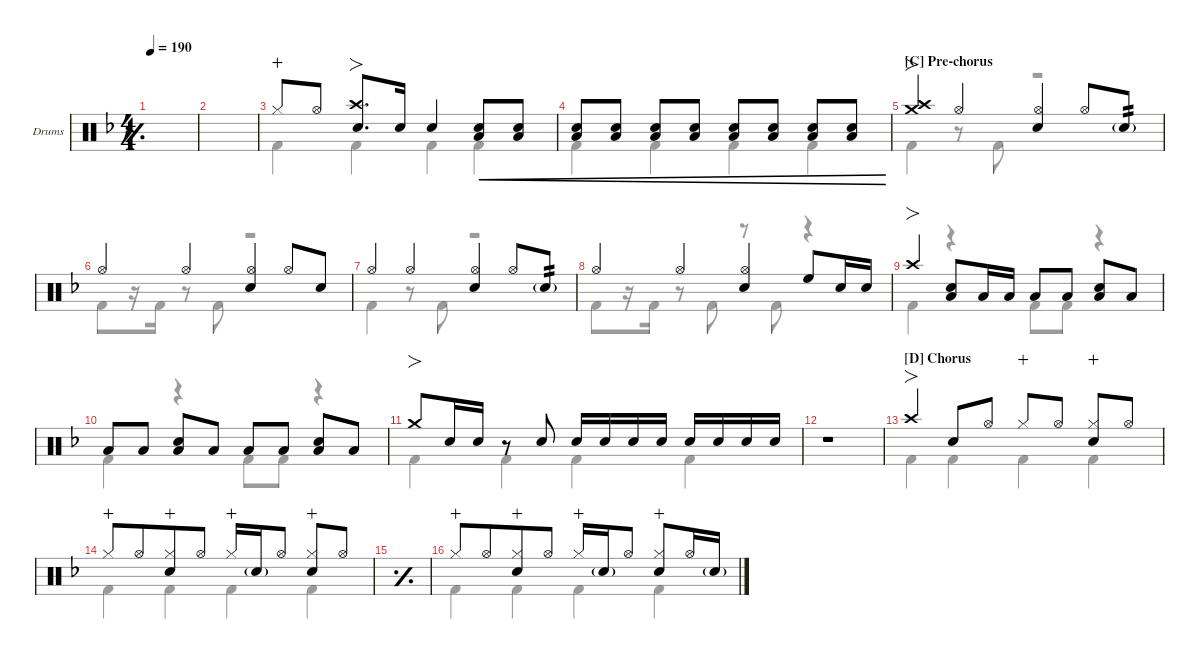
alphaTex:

\defaultSystemsLayout 4
\hideDynamics
\bracketExtendMode nobrackets
\firstSystemTrackNameOrientation horizontal
\track ("Drums" "Drums") {defaultSystemsLayout 4 instrument percussion}
\staff {score}
\articulation defaults
\voice
\ts (4 4)
\tempo 190
\clef neutral
\simile simple
\scale
0.266618
\ks dminor
|
\scale
0.244461 |
\simile none
\scale
0.24446 "Hi-Hat (closed)"{acc forcenatural}.8{dy mp wahc} "Hi-Hat (open)"{acc forcenatural}.8{dy f beam split} ("Snare (hit) 2"{acc forcenatural} "Crash high (hit)"{acc forcenatural}).8{fo d} "Snare (hit) 2"{acc forcenatural}.16 "Snare (hit) 2"{acc forcenatural}.4 ("Snare (hit) 2"{acc forcenatural} "Low Tom (hit)"{acc forcenatural}).8{cre} ("Snare (hit) 2"{acc forcenatural} "Low Tom (hit)"{acc forcenatural}).8{cre} |
\scale
0.244461 ("Snare (hit) 2"{acc forcenatural} "Low Tom (hit)"{acc forcenatural}).8{cre} ("Snare (hit) 2"{acc forcenatural} "Low Tom (hit)"{acc forcenatural}).8{cre} ("Snare (hit) 2"{acc forcenatural} "Low Tom (hit)"{acc forcenatural}).8{cre} ("Snare (hit) 2"{acc forcenatural} "Low Tom (hit)"{acc forcenatural}).8{cre} ("Snare (hit) 2"{acc forcenatural} "Low Tom (hit)"{acc forcenatural}).8{cre} ("Snare (hit) 2"{acc forcenatural} "Low Tom (hit)"{acc forcenatural}).8{cre} ("Snare (hit) 2"{acc forcenatural} "Low Tom (hit)"{acc forcenatural}).8{cre} ("Snare (hit) 2"{acc forcenatural} "Low Tom (hit)"{acc forcenatural}).8{cre} |
\section ("C" "Pre-chorus")
\scale
0.266618 ("Crash high (hit)"{acc forcenatural} "Crash medium (hit)"{acc forcenatural}).4{fo} "Hi-Hat (open)"{acc forcenatural}.4 ("Hi-Hat (open)"{acc forcenatural} "Snare (hit) 2"{acc forcenatural}).4 "Hi-Hat (open)"{acc forcenatural}.8 "Snare (hit) 2"{g acc forcenatural}.8{tp 2 dy mf} |
\scale
0.244461 "Hi-Hat (open)"{acc forcenatural}.4{dy f} "Hi-Hat (open)"{acc forcenatural}.4 ("Hi-Hat (open)"{acc forcenatural} "Snare (hit) 2"{acc forcenatural}).4 "Hi-Hat (open)"{acc forcenatural}.8 "Snare (hit) 2"{acc forcenatural}.8 |
\scale
0.24446 "Hi-Hat (open)"{acc forcenatural}.4 "Hi-Hat (open)"{acc forcenatural}.4 ("Hi-Hat (open)"{acc forcenatural} "Snare (hit) 2"{acc forcenatural}).4 "Hi-Hat (open)"{acc forcenatural}.8 "Snare (hit) 2"{g acc forcenatural}.8{tp 2 dy mf} |
\scale
0.244461 "Hi-Hat (open)"{acc forcenatural}.4{dy f} "Hi-Hat (open)"{acc forcenatural}.4 ("Hi-Hat (open)"{acc forcenatural} "Snare (hit) 2"{acc forcenatural}).4 "High Floor Tom (hit)"{acc forcenatural}.8 "Snare (hit) 2"{acc forcenatural}.16 "Snare (hit) 2"{acc forcenatural}.16{dy mf} |
\scale
0.266618 "Crash high (hit)"{acc forcenatural}.4{fo dy f} ("Snare (hit) 2"{acc forcenatural} "Low Tom (hit)"{acc forcenatural}).8 "Low Tom (hit)"{acc forcenatural}.16 "Low Tom (hit)"{acc forcenatural}.16 "Low Tom (hit)"{acc forcenatural}.8 "Low Tom (hit)"{acc forcenatural}.8 ("Low Tom (hit)"{acc forcenatural} "Snare (hit) 2"{acc forcenatural}).8 "Low Tom (hit)"{acc forcenatural}.8 |
\scale
0.244461 "Low Tom (hit)"{acc forcenatural}.8 "Low Tom (hit)"{acc forcenatural}.8 ("Low Tom (hit)"{acc forcenatural} "Snare (hit) 2"{acc forcenatural}).8 "Low Tom (hit)"{acc forcenatural}.8 "Low Tom (hit)"{acc forcenatural}.8 "Low Tom (hit)"{acc forcenatural}.8 ("Low Tom (hit)"{acc forcenatural} "Snare (hit) 2"{acc forcenatural}).8 "Low Tom (hit)"{acc forcenatural}.8 |
\scale
0.244461 "Crash medium (hit)"{acc forcenatural}.8{fo} "Snare (hit) 2"{acc forcenatural}.16 "Snare (hit) 2"{acc forcenatural}.16{beam split} r.8{beam split} "Snare (hit) 2"{acc forcenatural}.8 "Snare (hit) 2"{acc forcenatural}.16 "Snare (hit) 2"{acc forcenatural}.16{dy mp} "Snare (hit) 2"{acc forcenatural}.16{dy mf} "Snare (hit) 2"{acc forcenatural}.16{dy mp beam split} "Snare (hit) 2"{acc forcenatural}.16{dy f} "Snare (hit) 2"{acc forcenatural}.16{dy mp} "Snare (hit) 2"{acc forcenatural}.16{dy mf} "Snare (hit) 2"{acc forcenatural}.16{dy mp} |
\scale
0.244461 r.1 |
\section ("D" "Chorus")
\scale
0.266618 "Crash high (hit)"{acc forcenatural}.4{fo dy f} "Snare (hit) 2"{acc forcenatural}.8 "Hi-Hat (open)"{acc forcenatural}.8 "Hi-Hat (closed)"{acc forcenatural}.8{dy mp wahc} "Hi-Hat (open)"{acc forcenatural}.8{dy f} ("Hi-Hat (closed)"{acc forcenatural} "Snare (hit) 2"{acc forcenatural}).8{wahc} "Hi-Hat (open)"{acc forcenatural}.8 |
\scale
0.244461 "Hi-Hat (closed)"{acc forcenatural}.8{dy mp wahc beam merge} "Hi-Hat (open)"{acc forcenatural}.8{dy f beam merge} ("Hi-Hat (closed)"{acc forcenatural} "Snare (hit) 2"{acc forcenatural}).8{wahc beam merge} "Hi-Hat (open)"{acc forcenatural}.8 "Hi-Hat (closed)"{acc forcenatural}.16{dy mp wahc} "Snare (hit) 2"{g acc forcenatural}.16{dy mf} "Hi-Hat (open)"{acc forcenatural}.8{dy f beam split} ("Hi-Hat (closed)"{acc forcenatural} "Snare (hit) 2"{acc forcenatural}).8{wahc} "Hi-Hat (open)"{acc forcenatural}.8 |
\simile simple
\scale
0.24446 |
\simile none
\scale
0.244461 "Hi-Hat (closed)"{acc forcenatural}.8{dy mp wahc beam merge} "Hi-Hat (open)"{acc forcenatural}.8{dy f beam merge} ("Hi-Hat (closed)"{acc forcenatural} "Snare (hit) 2"{acc forcenatural}).8{wahc beam merge} "Hi-Hat (open)"{acc forcenatural}.8 "Hi-Hat (closed)"{acc forcenatural}.16{dy mp wahc} "Snare (hit) 2"{g acc forcenatural}.16{dy mf} "Hi-Hat (open)"{acc forcenatural}.8{dy f beam split} ("Hi-Hat (closed)"{acc forcenatural} "Snare (hit) 2"{acc forcenatural}).8{wahc} "Hi-Hat (open)"{acc forcenatural}.16 "Snare (hit) 2"{g acc forcenatural}.16{dy mf}
\voice
\clef neutral
\ottava regular
\simile simple
\scale
0.266618
\ks dminor
|
\scale
0.244461 |
\simile none
\scale
0.24446 "Kick (hit) 2"{acc forcenatural}.4 "Kick (hit) 2"{acc forcenatural}.4 "Kick (hit) 2"{acc forcenatural}.4 "Kick (hit) 2"{acc forcenatural}.4 |
\scale
0.244461 "Kick (hit) 2"{acc forcenatural}.4 "Kick (hit) 2"{acc forcenatural}.4 "Kick (hit) 2"{acc forcenatural}.4 "Kick (hit) 2"{acc forcenatural}.4 |
\scale
0.266618 "Kick (hit) 2"{acc forcenatural}.4 r.8 "Kick (hit) 2"{acc forcenatural}.8 r.2 |
\scale
0.244461 "Kick (hit) 2"{acc forcenatural}.8 r.16 "Kick (hit) 2"{acc forcenatural}.16{beam split} r.8{beam split} "Kick (hit) 2"{acc forcenatural}.8 r.2 |
\scale
0.24446 "Kick (hit) 2"{acc forcenatural}.4 r.8 "Kick (hit) 2"{acc forcenatural}.8 r.2 |
\scale
0.244461 "Kick (hit) 2"{acc forcenatural}.8 r.16 "Kick (hit) 2"{acc forcenatural}.16{beam split} r.8{beam split} "Kick (hit) 2"{acc forcenatural}.8 r.8 "Kick (hit) 2"{acc forcenatural}.8 r.4 |
\scale
0.266618 "Kick (hit) 2"{acc forcenatural}.4 r.4 "Kick (hit) 2"{acc forcenatural}.8 "Kick (hit) 2"{acc forcenatural}.8 r.4 |
\scale
0.244461 "Kick (hit) 2"{acc forcenatural}.4 r.4 "Kick (hit) 2"{acc forcenatural}.8 "Kick (hit) 2"{acc forcenatural}.8 r.4 |
\scale
0.244461 "Kick (hit) 2"{acc forcenatural}.4 "Kick (hit) 2"{acc forcenatural}.4 "Kick (hit) 2"{acc forcenatural}.4 "Kick (hit) 2"{acc forcenatural}.4 |
\scale
0.244461 r.1 |
\scale
0.266618 "Kick (hit) 2"{acc forcenatural}.4 "Kick (hit) 2"{acc forcenatural}.4 "Kick (hit) 2"{acc forcenatural}.4 "Kick (hit) 2"{acc forcenatural}.4 |
\scale
0.244461 "Kick (hit) 2"{acc forcenatural}.4 "Kick (hit) 2"{acc forcenatural}.4 "Kick (hit) 2"{acc forcenatural}.4 "Kick (hit) 2"{acc forcenatural}.4 |
\simile simple
\scale
0.24446 |
\simile none
\scale
0.244461 "Kick (hit) 2"{acc forcenatural}.4 "Kick (hit) 2"{acc forcenatural}.4 "Kick (hit) 2"{acc forcenatural}.4 "Kick (hit) 2"{acc forcenatural}.4
